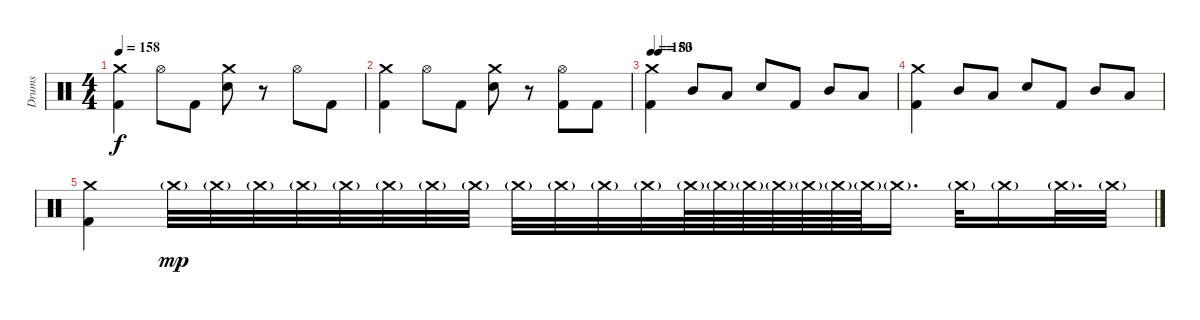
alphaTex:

\track ("Drums" "Drums") {instrument percussion}
\staff {score}
\articulation defaults
\ts (4 4)
\tempo 158
\clef neutral
\ks c
("Crash medium (hit)" "Kick (hit) 2").4{dy f} "Hi-Hat (open)".8 "Kick (hit) 2".8 ("Crash medium (hit)" "Electric Snare (hit)").8 r.8 "Hi-Hat (open)".8 "Kick (hit) 2".8 |
("Crash medium (hit)" "Kick (hit) 2").4 "Hi-Hat (open)".8 "Kick (hit) 2".8 ("Crash medium (hit)" "Electric Snare (hit)").8 r.8 ("Hi-Hat (open)" "Kick (hit) 2").8 "Kick (hit) 2".8 |
\tempo 150
\tempo (83 0.03125)
("Crash medium (hit)" "Kick (hit) 2").4 "Mid Tom (hit)".8 "Low Tom (hit)".8 "Electric Snare (hit)".8 "Kick (hit) 2".8 "Mid Tom (hit)".8 "Low Tom (hit)".8 |
("Crash medium (hit)" "Kick (hit) 2").4 "Mid Tom (hit)".8 "Low Tom (hit)".8 "Electric Snare (hit)".8 "Kick (hit) 2".8 "Mid Tom (hit)".8 "Low Tom (hit)".8 |
("Crash medium (hit)" "Kick (hit) 2").4 "Crash medium (hit)"{g}.32{dy mp} "Crash medium (hit)"{g}.32 "Crash medium (hit)"{g}.32 "Crash medium (hit)"{g}.32 "Crash medium (hit)"{g}.32 "Crash medium (hit)"{g}.32 "Crash medium (hit)"{g}.32 "Crash medium (hit)"{g}.32 "Crash medium (hit)"{g}.32 "Crash medium (hit)"{g}.32 "Crash medium (hit)"{g}.32 "Crash medium (hit)"{g}.32 "Crash medium (hit)"{g}.64 "Crash medium (hit)"{g}.64 "Crash medium (hit)"{g}.64 "Crash medium (hit)"{g}.64 "Crash medium (hit)"{g}.64 "Crash medium (hit)"{g}.64 "Crash medium (hit)"{g}.64 "Crash medium (hit)"{g}.16{d} "Crash medium (hit)"{g}.32 "Crash medium (hit)"{g}.16 "Crash medium (hit)"{g}.32{d} "Crash medium (hit)"{g}.32
